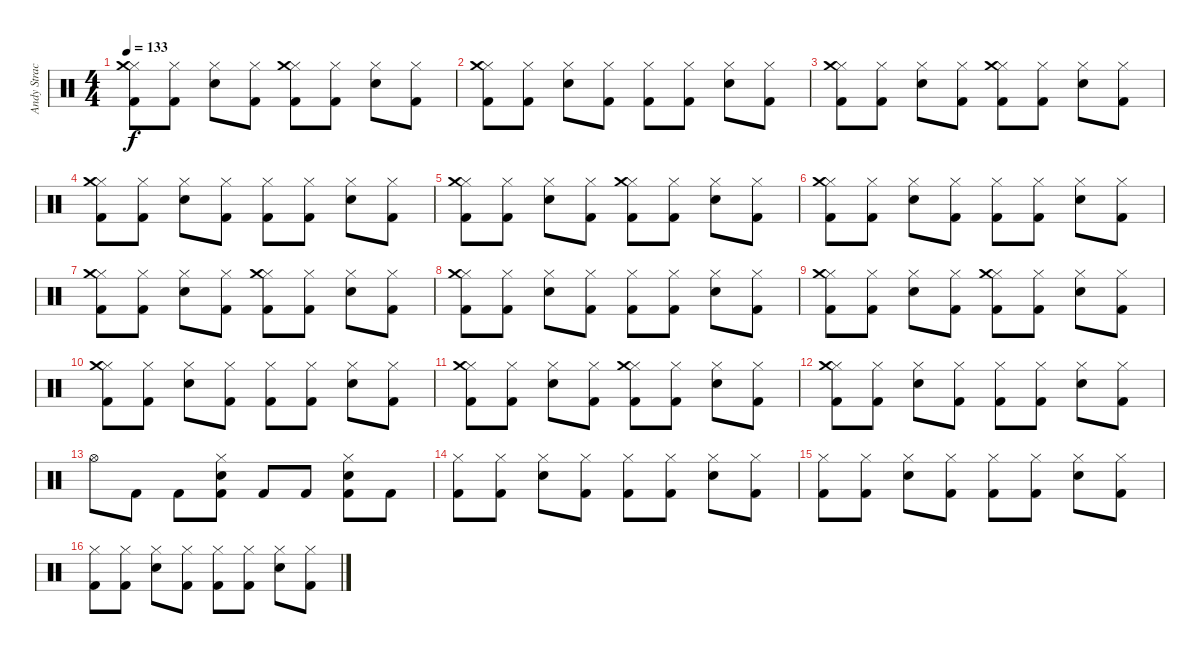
\track ("Andy Strachan" "Andy Strac") {instrument percussion}
\staff {score}
\articulation defaults
\ts (4 4)
\tempo 133
\clef neutral
\ks c
("Hi-Hat (closed)" "Kick (hit) 2" "Crash medium (hit)").8{dy f} ("Hi-Hat (closed)" "Kick (hit) 2").8 ("Electric Snare (hit)" "Hi-Hat (closed)").8 ("Hi-Hat (closed)" "Kick (hit) 2").8 ("Hi-Hat (closed)" "Kick (hit) 2" "Crash medium (hit)").8 ("Hi-Hat (closed)" "Kick (hit) 2").8 ("Electric Snare (hit)" "Hi-Hat (closed)").8 ("Hi-Hat (closed)" "Kick (hit) 2").8 |
("Hi-Hat (closed)" "Kick (hit) 2" "Crash medium (hit)").8 ("Hi-Hat (closed)" "Kick (hit) 2").8 ("Electric Snare (hit)" "Hi-Hat (closed)").8 ("Hi-Hat (closed)" "Kick (hit) 2").8 ("Hi-Hat (closed)" "Kick (hit) 2").8 ("Hi-Hat (closed)" "Kick (hit) 2").8 ("Electric Snare (hit)" "Hi-Hat (closed)").8 ("Hi-Hat (closed)" "Kick (hit) 2").8 |
("Hi-Hat (closed)" "Kick (hit) 2" "Crash medium (hit)").8 ("Hi-Hat (closed)" "Kick (hit) 2").8 ("Electric Snare (hit)" "Hi-Hat (closed)").8 ("Hi-Hat (closed)" "Kick (hit) 2").8 ("Hi-Hat (closed)" "Kick (hit) 2" "Crash medium (hit)").8 ("Hi-Hat (closed)" "Kick (hit) 2").8 ("Electric Snare (hit)" "Hi-Hat (closed)").8 ("Hi-Hat (closed)" "Kick (hit) 2").8 |
("Hi-Hat (closed)" "Kick (hit) 2" "Crash medium (hit)").8 ("Hi-Hat (closed)" "Kick (hit) 2").8 ("Electric Snare (hit)" "Hi-Hat (closed)").8 ("Hi-Hat (closed)" "Kick (hit) 2").8 ("Hi-Hat (closed)" "Kick (hit) 2").8 ("Hi-Hat (closed)" "Kick (hit) 2").8 ("Electric Snare (hit)" "Hi-Hat (closed)").8 ("Hi-Hat (closed)" "Kick (hit) 2").8 |
("Hi-Hat (closed)" "Kick (hit) 2" "Crash medium (hit)").8 ("Hi-Hat (closed)" "Kick (hit) 2").8 ("Electric Snare (hit)" "Hi-Hat (closed)").8 ("Hi-Hat (closed)" "Kick (hit) 2").8 ("Hi-Hat (closed)" "Kick (hit) 2" "Crash medium (hit)").8 ("Hi-Hat (closed)" "Kick (hit) 2").8 ("Electric Snare (hit)" "Hi-Hat (closed)").8 ("Hi-Hat (closed)" "Kick (hit) 2").8 |
("Hi-Hat (closed)" "Kick (hit) 2" "Crash medium (hit)").8 ("Hi-Hat (closed)" "Kick (hit) 2").8 ("Electric Snare (hit)" "Hi-Hat (closed)").8 ("Hi-Hat (closed)" "Kick (hit) 2").8 ("Hi-Hat (closed)" "Kick (hit) 2").8 ("Hi-Hat (closed)" "Kick (hit) 2").8 ("Electric Snare (hit)" "Hi-Hat (closed)").8 ("Hi-Hat (closed)" "Kick (hit) 2").8 |
("Hi-Hat (closed)" "Kick (hit) 2" "Crash medium (hit)").8 ("Hi-Hat (closed)" "Kick (hit) 2").8 ("Electric Snare (hit)" "Hi-Hat (closed)").8 ("Hi-Hat (closed)" "Kick (hit) 2").8 ("Hi-Hat (closed)" "Kick (hit) 2" "Crash medium (hit)").8 ("Hi-Hat (closed)" "Kick (hit) 2").8 ("Electric Snare (hit)" "Hi-Hat (closed)").8 ("Hi-Hat (closed)" "Kick (hit) 2").8 |
("Hi-Hat (closed)" "Kick (hit) 2" "Crash medium (hit)").8 ("Hi-Hat (closed)" "Kick (hit) 2").8 ("Electric Snare (hit)" "Hi-Hat (closed)").8 ("Hi-Hat (closed)" "Kick (hit) 2").8 ("Hi-Hat (closed)" "Kick (hit) 2").8 ("Hi-Hat (closed)" "Kick (hit) 2").8 ("Electric Snare (hit)" "Hi-Hat (closed)").8 ("Hi-Hat (closed)" "Kick (hit) 2").8 |
("Hi-Hat (closed)" "Kick (hit) 2" "Crash medium (hit)").8 ("Hi-Hat (closed)" "Kick (hit) 2").8 ("Electric Snare (hit)" "Hi-Hat (closed)").8 ("Hi-Hat (closed)" "Kick (hit) 2").8 ("Hi-Hat (closed)" "Kick (hit) 2" "Crash medium (hit)").8 ("Hi-Hat (closed)" "Kick (hit) 2").8 ("Electric Snare (hit)" "Hi-Hat (closed)").8 ("Hi-Hat (closed)" "Kick (hit) 2").8 |
("Hi-Hat (closed)" "Kick (hit) 2" "Crash medium (hit)").8 ("Hi-Hat (closed)" "Kick (hit) 2").8 ("Electric Snare (hit)" "Hi-Hat (closed)").8 ("Hi-Hat (closed)" "Kick (hit) 2").8 ("Hi-Hat (closed)" "Kick (hit) 2").8 ("Hi-Hat (closed)" "Kick (hit) 2").8 ("Electric Snare (hit)" "Hi-Hat (closed)").8 ("Hi-Hat (closed)" "Kick (hit) 2").8 |
("Hi-Hat (closed)" "Kick (hit) 2" "Crash medium (hit)").8 ("Hi-Hat (closed)" "Kick (hit) 2").8 ("Electric Snare (hit)" "Hi-Hat (closed)").8 ("Hi-Hat (closed)" "Kick (hit) 2").8 ("Hi-Hat (closed)" "Kick (hit) 2" "Crash medium (hit)").8 ("Hi-Hat (closed)" "Kick (hit) 2").8 ("Electric Snare (hit)" "Hi-Hat (closed)").8 ("Hi-Hat (closed)" "Kick (hit) 2").8 |
("Hi-Hat (closed)" "Kick (hit) 2" "Crash medium (hit)").8 ("Hi-Hat (closed)" "Kick (hit) 2").8 ("Electric Snare (hit)" "Hi-Hat (closed)").8 ("Hi-Hat (closed)" "Kick (hit) 2").8 ("Hi-Hat (closed)" "Kick (hit) 2").8 ("Hi-Hat (closed)" "Kick (hit) 2").8 ("Electric Snare (hit)" "Hi-Hat (closed)").8 ("Hi-Hat (closed)" "Kick (hit) 2").8 |
"Hi-Hat (open)".8 "Kick (hit) 2".8 "Kick (hit) 2".8 ("Electric Snare (hit)" "Hi-Hat (closed)" "Kick (hit) 2").8 "Kick (hit) 2".8 "Kick (hit) 2".8 ("Electric Snare (hit)" "Hi-Hat (closed)" "Kick (hit) 2").8 "Kick (hit) 2".8 |
("Hi-Hat (closed)" "Kick (hit) 2").8 ("Hi-Hat (closed)" "Kick (hit) 2").8 ("Electric Snare (hit)" "Hi-Hat (closed)").8 ("Hi-Hat (closed)" "Kick (hit) 2").8 ("Hi-Hat (closed)" "Kick (hit) 2").8 ("Hi-Hat (closed)" "Kick (hit) 2").8 ("Electric Snare (hit)" "Hi-Hat (closed)").8 ("Hi-Hat (closed)" "Kick (hit) 2").8 |
("Hi-Hat (closed)" "Kick (hit) 2").8 ("Hi-Hat (closed)" "Kick (hit) 2").8 ("Electric Snare (hit)" "Hi-Hat (closed)").8 ("Hi-Hat (closed)" "Kick (hit) 2").8 ("Hi-Hat (closed)" "Kick (hit) 2").8 ("Hi-Hat (closed)" "Kick (hit) 2").8 ("Electric Snare (hit)" "Hi-Hat (closed)").8 ("Hi-Hat (closed)" "Kick (hit) 2").8 |
("Hi-Hat (closed)" "Kick (hit) 2").8 ("Hi-Hat (closed)" "Kick (hit) 2").8 ("Electric Snare (hit)" "Hi-Hat (closed)").8 ("Hi-Hat (closed)" "Kick (hit) 2").8 ("Hi-Hat (closed)" "Kick (hit) 2").8 ("Hi-Hat (closed)" "Kick (hit) 2").8 ("Electric Snare (hit)" "Hi-Hat (closed)").8 ("Hi-Hat (closed)" "Kick (hit) 2").8
